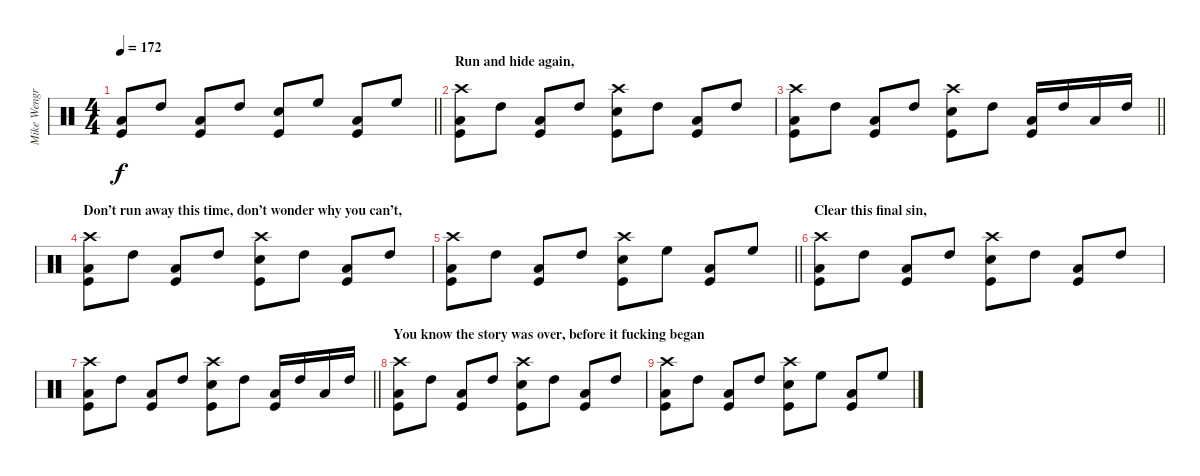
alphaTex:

\track ("Mike Wengren - Drums" "Mike Wengr") {instrument percussion}
\staff {score}
\articulation defaults
\ts (4 4)
\tempo 172
\clef neutral
\barLineRight lightlight
\ks c
("Low Tom (hit)" "Kick (hit)").8{dy f} "High Tom (hit)".8 ("Low Tom (hit)" "Kick (hit)").8 "High Tom (hit)".8 ("Snare (hit) 2" "Kick (hit)").8 "High Floor Tom (hit)".8 ("Low Tom (hit)" "Kick (hit)").8 "High Floor Tom (hit)".8 |
\section ("" "Run and hide again,")
("Crash high (hit)" "Low Tom (hit)" "Kick (hit)").8 "High Tom (hit)".8 ("Low Tom (hit)" "Kick (hit)").8 "High Tom (hit)".8 ("Crash high (hit)" "Snare (hit) 2" "Kick (hit)").8 "High Tom (hit)".8 ("Low Tom (hit)" "Kick (hit)").8 "High Tom (hit)".8 |
\barLineRight lightlight
("Crash high (hit)" "Low Tom (hit)" "Kick (hit)").8 "High Tom (hit)".8 ("Low Tom (hit)" "Kick (hit)").8 "High Tom (hit)".8 ("Crash high (hit)" "Snare (hit) 2" "Kick (hit)").8 "High Tom (hit)".8 ("Low Tom (hit)" "Kick (hit)").16 "High Tom (hit)".16 "Low Tom (hit)".16 "High Tom (hit)".16 |
\section ("" "Don’t run away this time, don’t wonder why you can’t,")
("Crash high (hit)" "Low Tom (hit)" "Kick (hit)").8 "High Tom (hit)".8 ("Low Tom (hit)" "Kick (hit)").8 "High Tom (hit)".8 ("Crash high (hit)" "Snare (hit) 2" "Kick (hit)").8 "High Tom (hit)".8 ("Low Tom (hit)" "Kick (hit)").8 "High Tom (hit)".8 |
\barLineRight lightlight
("Crash high (hit)" "Low Tom (hit)" "Kick (hit)").8 "High Tom (hit)".8 ("Low Tom (hit)" "Kick (hit)").8 "High Tom (hit)".8 ("Crash high (hit)" "Snare (hit) 2" "Kick (hit)").8 "High Floor Tom (hit)".8 ("Low Tom (hit)" "Kick (hit)").8 "High Floor Tom (hit)".8 |
\section ("" "Clear this final sin,")
("Crash high (hit)" "Low Tom (hit)" "Kick (hit)").8 "High Tom (hit)".8 ("Low Tom (hit)" "Kick (hit)").8 "High Tom (hit)".8 ("Crash high (hit)" "Snare (hit) 2" "Kick (hit)").8 "High Tom (hit)".8 ("Low Tom (hit)" "Kick (hit)").8 "High Tom (hit)".8 |
\barLineRight lightlight
("Crash high (hit)" "Low Tom (hit)" "Kick (hit)").8 "High Tom (hit)".8 ("Low Tom (hit)" "Kick (hit)").8 "High Tom (hit)".8 ("Crash high (hit)" "Snare (hit) 2" "Kick (hit)").8 "High Tom (hit)".8 ("Low Tom (hit)" "Kick (hit)").16 "High Tom (hit)".16 "Low Tom (hit)".16 "High Tom (hit)".16 |
\section ("" "You know the story was over, before it fucking began")
("Crash high (hit)" "Low Tom (hit)" "Kick (hit)").8 "High Tom (hit)".8 ("Low Tom (hit)" "Kick (hit)").8 "High Tom (hit)".8 ("Crash high (hit)" "Snare (hit) 2" "Kick (hit)").8 "High Tom (hit)".8 ("Low Tom (hit)" "Kick (hit)").8 "High Tom (hit)".8 |
("Crash high (hit)" "Low Tom (hit)" "Kick (hit)").8 "High Tom (hit)".8 ("Low Tom (hit)" "Kick (hit)").8 "High Tom (hit)".8 ("Crash high (hit)" "Snare (hit) 2" "Kick (hit)").8 "High Floor Tom (hit)".8 ("Low Tom (hit)" "Kick (hit)").8 "High Floor Tom (hit)".8
